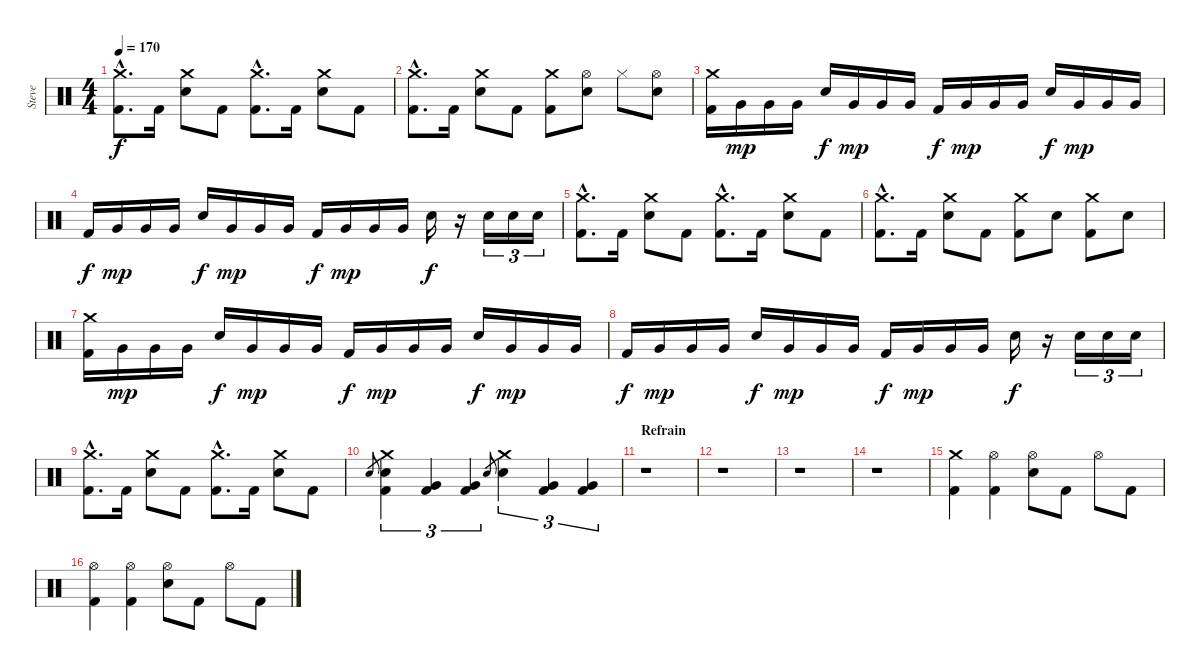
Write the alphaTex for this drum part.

\track ("Steve" "Steve") {instrument percussion}
\staff {score}
\articulation defaults
\ts (4 4)
\tempo 170
\clef neutral
\ks c
("Crash medium (hit)"{hac} "Kick (hit) 2"{hac}).8{d dy f} "Kick (hit) 2".16 ("Crash medium (hit)" "Electric Snare (hit)").8 "Kick (hit) 2".8 ("Crash medium (hit)"{hac} "Kick (hit) 2"{hac}).8{d} "Kick (hit) 2".16 ("Crash medium (hit)" "Electric Snare (hit)").8 "Kick (hit) 2".8 |
("Crash medium (hit)"{hac} "Kick (hit) 2"{hac}).8{d} "Kick (hit) 2".16 ("Crash medium (hit)" "Electric Snare (hit)").8 "Kick (hit) 2".8 ("Crash medium (hit)" "Kick (hit) 2").8 ("Hi-Hat (open)" "Electric Snare (hit)").8 "Hi-Hat (closed)".8 ("Hi-Hat (open)" "Electric Snare (hit)").8 |
("Crash medium (hit)" "Kick (hit) 2").16 "Very Low Tom (hit)".16{dy mp} "Very Low Tom (hit)".16 "Very Low Tom (hit)".16 "Electric Snare (hit)".16{dy f} "Very Low Tom (hit)".16{dy mp} "Very Low Tom (hit)".16 "Very Low Tom (hit)".16 "Kick (hit) 2".16{dy f} "Very Low Tom (hit)".16{dy mp} "Very Low Tom (hit)".16 "Very Low Tom (hit)".16 "Electric Snare (hit)".16{dy f} "Very Low Tom (hit)".16{dy mp} "Very Low Tom (hit)".16 "Very Low Tom (hit)".16 |
"Kick (hit) 2".16{dy f} "Very Low Tom (hit)".16{dy mp} "Very Low Tom (hit)".16 "Very Low Tom (hit)".16 "Electric Snare (hit)".16{dy f} "Very Low Tom (hit)".16{dy mp} "Very Low Tom (hit)".16 "Very Low Tom (hit)".16 "Kick (hit) 2".16{dy f} "Very Low Tom (hit)".16{dy mp} "Very Low Tom (hit)".16 "Very Low Tom (hit)".16 "Electric Snare (hit)".16{dy f} r.16 "Electric Snare (hit)".16{tu (3 2)} "Electric Snare (hit)".16{tu (3 2)} "Electric Snare (hit)".16{tu (3 2)} |
("Crash medium (hit)"{hac} "Kick (hit) 2"{hac}).8{d} "Kick (hit) 2".16 ("Crash medium (hit)" "Electric Snare (hit)").8 "Kick (hit) 2".8 ("Crash medium (hit)"{hac} "Kick (hit) 2"{hac}).8{d} "Kick (hit) 2".16 ("Crash medium (hit)" "Electric Snare (hit)").8 "Kick (hit) 2".8 |
("Crash medium (hit)"{hac} "Kick (hit) 2"{hac}).8{d} "Kick (hit) 2".16 ("Crash medium (hit)" "Electric Snare (hit)").8 "Kick (hit) 2".8 ("Crash medium (hit)" "Kick (hit) 2").8 "Electric Snare (hit)".8 ("Crash medium (hit)" "Kick (hit) 2").8 "Electric Snare (hit)".8 |
("Crash medium (hit)" "Kick (hit) 2").16 "Very Low Tom (hit)".16{dy mp} "Very Low Tom (hit)".16 "Very Low Tom (hit)".16 "Electric Snare (hit)".16{dy f} "Very Low Tom (hit)".16{dy mp} "Very Low Tom (hit)".16 "Very Low Tom (hit)".16 "Kick (hit) 2".16{dy f} "Very Low Tom (hit)".16{dy mp} "Very Low Tom (hit)".16 "Very Low Tom (hit)".16 "Electric Snare (hit)".16{dy f} "Very Low Tom (hit)".16{dy mp} "Very Low Tom (hit)".16 "Very Low Tom (hit)".16 |
"Kick (hit) 2".16{dy f} "Very Low Tom (hit)".16{dy mp} "Very Low Tom (hit)".16 "Very Low Tom (hit)".16 "Electric Snare (hit)".16{dy f} "Very Low Tom (hit)".16{dy mp} "Very Low Tom (hit)".16 "Very Low Tom (hit)".16 "Kick (hit) 2".16{dy f} "Very Low Tom (hit)".16{dy mp} "Very Low Tom (hit)".16 "Very Low Tom (hit)".16 "Electric Snare (hit)".16{dy f} r.16 "Electric Snare (hit)".16{tu (3 2)} "Electric Snare (hit)".16{tu (3 2)} "Electric Snare (hit)".16{tu (3 2)} |
("Crash medium (hit)"{hac} "Kick (hit) 2"{hac}).8{d} "Kick (hit) 2".16 ("Crash medium (hit)" "Electric Snare (hit)").8 "Kick (hit) 2".8 ("Crash medium (hit)"{hac} "Kick (hit) 2"{hac}).8{d} "Kick (hit) 2".16 ("Crash medium (hit)" "Electric Snare (hit)").8 "Kick (hit) 2".8 |
"Electric Snare (hit)".8{gr} ("Crash medium (hit)" "Electric Snare (hit)" "Kick (hit) 2").4{tu (3 2)} ("Very Low Tom (hit)" "Kick (hit) 2").4{tu (3 2)} ("Very Low Tom (hit)" "Kick (hit) 2").4{tu (3 2)} "Electric Snare (hit)".8{gr} ("Crash medium (hit)" "Electric Snare (hit)").4{tu (3 2)} ("Very Low Tom (hit)" "Kick (hit) 2").4{tu (3 2)} ("Very Low Tom (hit)" "Kick (hit) 2").4{tu (3 2)} |
\section ("" "Refrain")
r.1 |
r.1 |
r.1 |
r.1 |
("Crash medium (hit)" "Kick (hit) 2").4 ("Hi-Hat (open)" "Kick (hit) 2").4 ("Electric Snare (hit)" "Hi-Hat (open)").8 "Kick (hit) 2".8 "Hi-Hat (open)".8 "Kick (hit) 2".8 |
("Hi-Hat (open)" "Kick (hit) 2").4 ("Hi-Hat (open)" "Kick (hit) 2").4 ("Electric Snare (hit)" "Hi-Hat (open)").8 "Kick (hit) 2".8 "Hi-Hat (open)".8 "Kick (hit) 2".8
